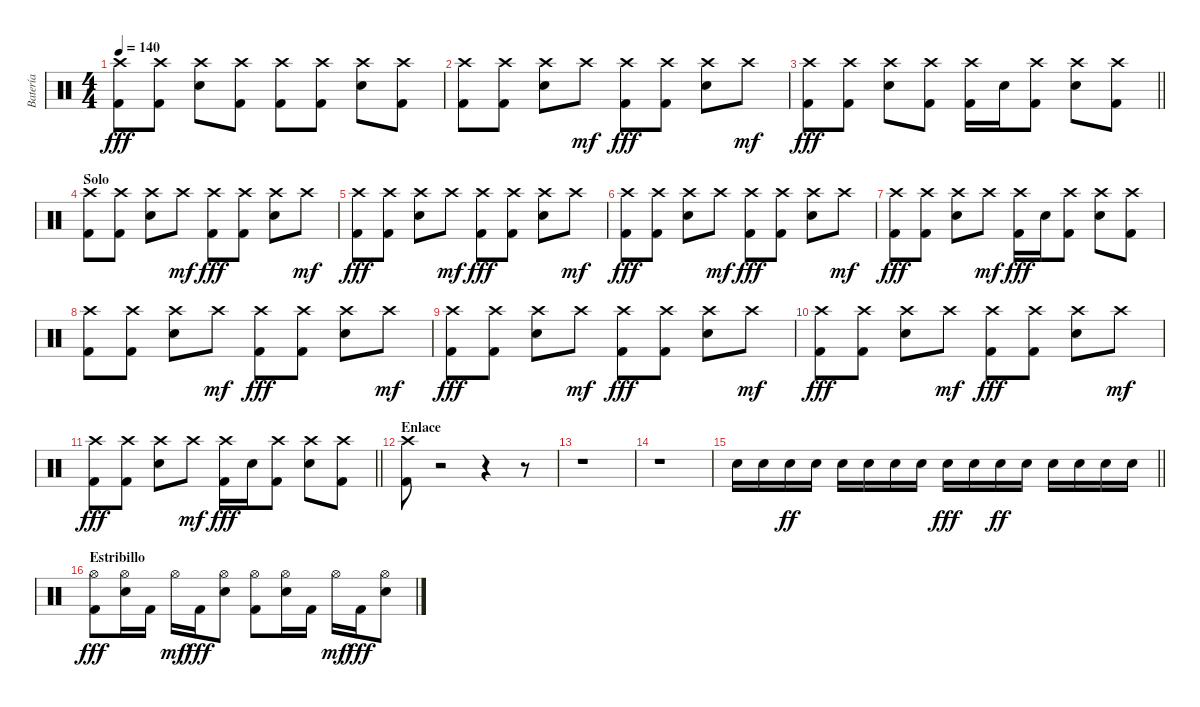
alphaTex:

\track ("Batería" "Batería") {instrument percussion}
\staff {score}
\articulation defaults
\ts (4 4)
\tempo 140
\clef neutral
\ks c
("Crash high (hit)" "Kick (hit) 2").8{dy fff} ("Crash high (hit)" "Kick (hit) 2").8 ("Crash high (hit)" "Electric Snare (hit)").8 ("Crash high (hit)" "Kick (hit) 2").8 ("Crash high (hit)" "Kick (hit) 2").8 ("Crash high (hit)" "Kick (hit) 2").8 ("Crash high (hit)" "Electric Snare (hit)").8 ("Crash high (hit)" "Kick (hit) 2").8 |
("Crash high (hit)" "Kick (hit) 2").8 ("Crash high (hit)" "Kick (hit) 2").8 ("Crash high (hit)" "Electric Snare (hit)").8 "Crash high (hit)".8{dy mf} ("Crash high (hit)" "Kick (hit) 2").8{dy fff} ("Crash high (hit)" "Kick (hit) 2").8 ("Crash high (hit)" "Electric Snare (hit)").8 "Crash high (hit)".8{dy mf} |
\barLineRight lightlight
("Crash high (hit)" "Kick (hit) 2").8{dy fff} ("Crash high (hit)" "Kick (hit) 2").8 ("Crash high (hit)" "Electric Snare (hit)").8 ("Crash high (hit)" "Kick (hit) 2").8 ("Crash high (hit)" "Kick (hit) 2").16 "Electric Snare (hit)".16 ("Crash high (hit)" "Kick (hit) 2").8 ("Crash high (hit)" "Electric Snare (hit)").8 ("Crash high (hit)" "Kick (hit) 2").8 |
\section ("" "Solo")
("Crash high (hit)" "Kick (hit) 2").8 ("Crash high (hit)" "Kick (hit) 2").8 ("Crash high (hit)" "Electric Snare (hit)").8 "Crash high (hit)".8{dy mf} ("Crash high (hit)" "Kick (hit) 2").8{dy fff} ("Crash high (hit)" "Kick (hit) 2").8 ("Crash high (hit)" "Electric Snare (hit)").8 "Crash high (hit)".8{dy mf} |
("Crash high (hit)" "Kick (hit) 2").8{dy fff} ("Crash high (hit)" "Kick (hit) 2").8 ("Crash high (hit)" "Electric Snare (hit)").8 "Crash high (hit)".8{dy mf} ("Crash high (hit)" "Kick (hit) 2").8{dy fff} ("Crash high (hit)" "Kick (hit) 2").8 ("Crash high (hit)" "Electric Snare (hit)").8 "Crash high (hit)".8{dy mf} |
("Crash high (hit)" "Kick (hit) 2").8{dy fff} ("Crash high (hit)" "Kick (hit) 2").8 ("Crash high (hit)" "Electric Snare (hit)").8 "Crash high (hit)".8{dy mf} ("Crash high (hit)" "Kick (hit) 2").8{dy fff} ("Crash high (hit)" "Kick (hit) 2").8 ("Crash high (hit)" "Electric Snare (hit)").8 "Crash high (hit)".8{dy mf} |
("Crash high (hit)" "Kick (hit) 2").8{dy fff} ("Crash high (hit)" "Kick (hit) 2").8 ("Crash high (hit)" "Electric Snare (hit)").8 "Crash high (hit)".8{dy mf} ("Crash high (hit)" "Kick (hit) 2").16{dy fff} "Electric Snare (hit)".16 ("Crash high (hit)" "Kick (hit) 2").8 ("Crash high (hit)" "Electric Snare (hit)").8 ("Crash high (hit)" "Kick (hit) 2").8 |
("Crash high (hit)" "Kick (hit) 2").8 ("Crash high (hit)" "Kick (hit) 2").8 ("Crash high (hit)" "Electric Snare (hit)").8 "Crash high (hit)".8{dy mf} ("Crash high (hit)" "Kick (hit) 2").8{dy fff} ("Crash high (hit)" "Kick (hit) 2").8 ("Crash high (hit)" "Electric Snare (hit)").8 "Crash high (hit)".8{dy mf} |
("Crash high (hit)" "Kick (hit) 2").8{dy fff} ("Crash high (hit)" "Kick (hit) 2").8 ("Crash high (hit)" "Electric Snare (hit)").8 "Crash high (hit)".8{dy mf} ("Crash high (hit)" "Kick (hit) 2").8{dy fff} ("Crash high (hit)" "Kick (hit) 2").8 ("Crash high (hit)" "Electric Snare (hit)").8 "Crash high (hit)".8{dy mf} |
("Crash high (hit)" "Kick (hit) 2").8{dy fff} ("Crash high (hit)" "Kick (hit) 2").8 ("Crash high (hit)" "Electric Snare (hit)").8 "Crash high (hit)".8{dy mf} ("Crash high (hit)" "Kick (hit) 2").8{dy fff} ("Crash high (hit)" "Kick (hit) 2").8 ("Crash high (hit)" "Electric Snare (hit)").8 "Crash high (hit)".8{dy mf} |
\barLineRight lightlight
("Crash high (hit)" "Kick (hit) 2").8{dy fff} ("Crash high (hit)" "Kick (hit) 2").8 ("Crash high (hit)" "Electric Snare (hit)").8 "Crash high (hit)".8{dy mf} ("Crash high (hit)" "Kick (hit) 2").16{dy fff} "Electric Snare (hit)".16 ("Crash high (hit)" "Kick (hit) 2").8 ("Crash high (hit)" "Electric Snare (hit)").8 ("Crash high (hit)" "Kick (hit) 2").8 |
\section ("" "Enlace")
("Crash high (hit)" "Kick (hit) 2").8 r.2 r.4 r.8 |
r.1 |
r.1 |
\barLineRight lightlight "Electric Snare (hit)".16 "Electric Snare (hit)".16 "Electric Snare (hit)".16{dy ff} "Electric Snare (hit)".16 "Electric Snare (hit)".16 "Electric Snare (hit)".16 "Electric Snare (hit)".16 "Electric Snare (hit)".16 "Electric Snare (hit)".16{dy fff} "Electric Snare (hit)".16 "Electric Snare (hit)".16{dy ff} "Electric Snare (hit)".16 "Electric Snare (hit)".16 "Electric Snare (hit)".16 "Electric Snare (hit)".16 "Electric Snare (hit)".16
|
\section ("" "Estribillo")
("Hi-Hat (open)" "Kick (hit) 2").8{dy fff} ("Hi-Hat (open)" "Electric Snare (hit)").16 "Kick (hit) 2".16 "Hi-Hat (open)".16{dy mf} "Kick (hit) 2".16{dy fff} ("Hi-Hat (open)" "Electric Snare (hit)").8 ("Hi-Hat (open)" "Kick (hit) 2").8 ("Hi-Hat (open)" "Electric Snare (hit)").16 "Kick (hit) 2".16 "Hi-Hat (open)".16{dy mf} "Kick (hit) 2".16{dy fff} ("Hi-Hat (open)" "Electric Snare (hit)").8
